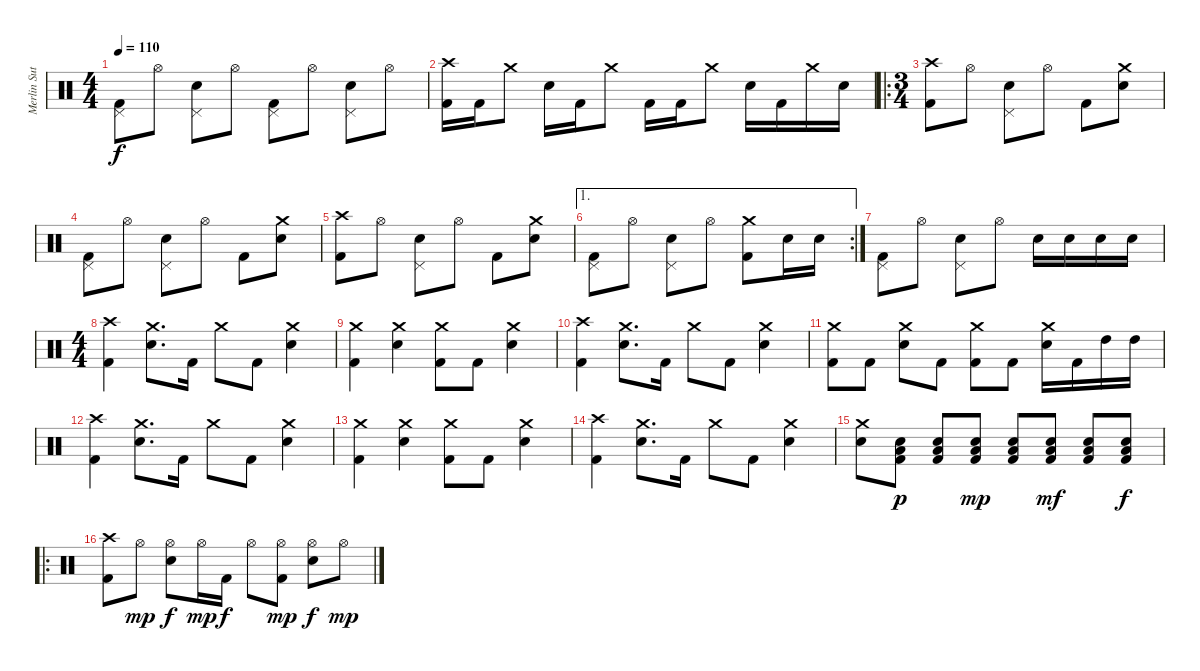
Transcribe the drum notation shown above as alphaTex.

\track ("Merlin Sutter" "Merlin Sut") {instrument percussion}
\staff {score}
\articulation defaults
\ts (4 4)
\tempo 110
\clef neutral
\ks c
("Pedal Hi-Hat (hit)" "Kick (hit) 2").8{dy f} "Hi-Hat (open)".8 ("Pedal Hi-Hat (hit)" "Snare (hit) 2").8 "Hi-Hat (open)".8 ("Pedal Hi-Hat (hit)" "Kick (hit) 2").8 "Hi-Hat (open)".8 ("Pedal Hi-Hat (hit)" "Snare (hit) 2").8 "Hi-Hat (open)".8 |
("Crash high (hit)" "Kick (hit) 2").16 "Kick (hit) 2".16 "Crash medium (hit)".8 "Snare (hit) 2".16 "Kick (hit) 2".16 "Crash medium (hit)".8 "Kick (hit) 2".16 "Kick (hit) 2".16 "Crash medium (hit)".8 "Snare (hit) 2".16 "Kick (hit) 2".16 "Crash medium (hit)".16 "Snare (hit) 2".16 |
\ro
\ts (3 4)
("Crash high (hit)" "Kick (hit) 2").8 "Hi-Hat (open)".8 ("Pedal Hi-Hat (hit)" "Snare (hit) 2").8 "Hi-Hat (open)".8 "Kick (hit) 2".8 ("Crash medium (hit)" "Snare (hit) 2").8 |
("Pedal Hi-Hat (hit)" "Kick (hit) 2").8 "Hi-Hat (open)".8 ("Pedal Hi-Hat (hit)" "Snare (hit) 2").8 "Hi-Hat (open)".8 "Kick (hit) 2".8 ("Crash medium (hit)" "Snare (hit) 2").8 |
("Crash high (hit)" "Kick (hit) 2").8 "Hi-Hat (open)".8 ("Pedal Hi-Hat (hit)" "Snare (hit) 2").8 "Hi-Hat (open)".8 "Kick (hit) 2".8 ("Crash medium (hit)" "Snare (hit) 2").8 |
\ae 1
\rc 2
("Pedal Hi-Hat (hit)" "Kick (hit) 2").8 "Hi-Hat (open)".8 ("Pedal Hi-Hat (hit)" "Snare (hit) 2").8 "Hi-Hat (open)".8 ("Crash medium (hit)" "Kick (hit) 2").8 "Snare (hit) 2".16 "Snare (hit) 2".16 |
("Pedal Hi-Hat (hit)" "Kick (hit) 2").8 "Hi-Hat (open)".8 ("Pedal Hi-Hat (hit)" "Snare (hit) 2").8 "Hi-Hat (open)".8 "Snare (hit) 2".16 "Snare (hit) 2".16 "Snare (hit) 2".16 "Snare (hit) 2".16 |
\ts (4 4)
("Crash high (hit)" "Kick (hit) 2").4 ("Crash medium (hit)" "Snare (hit) 2").8{d} "Kick (hit) 2".16 "Crash medium (hit)".8 "Kick (hit) 2".8 ("Crash medium (hit)" "Snare (hit) 2").4 |
("Crash medium (hit)" "Kick (hit) 2").4 ("Crash medium (hit)" "Snare (hit) 2").4 ("Crash medium (hit)" "Kick (hit) 2").8 "Kick (hit) 2".8 ("Crash medium (hit)" "Snare (hit) 2").4 |
("Crash high (hit)" "Kick (hit) 2").4 ("Crash medium (hit)" "Snare (hit) 2").8{d} "Kick (hit) 2".16 "Crash medium (hit)".8 "Kick (hit) 2".8 ("Crash medium (hit)" "Snare (hit) 2").4 |
("Crash medium (hit)" "Kick (hit) 2").8 "Kick (hit) 2".8 ("Crash medium (hit)" "Snare (hit) 2").8 "Kick (hit) 2".8 ("Crash medium (hit)" "Kick (hit) 2").8 "Kick (hit) 2".8 ("Crash medium (hit)" "Snare (hit) 2").16 "Kick (hit) 2".16 "High Tom (hit)".16 "High Tom (hit)".16 |
("Crash high (hit)" "Kick (hit) 2").4 ("Crash medium (hit)" "Snare (hit) 2").8{d} "Kick (hit) 2".16 "Crash medium (hit)".8 "Kick (hit) 2".8 ("Crash medium (hit)" "Snare (hit) 2").4 |
("Crash medium (hit)" "Kick (hit) 2").4 ("Crash medium (hit)" "Snare (hit) 2").4 ("Crash medium (hit)" "Kick (hit) 2").8 "Kick (hit) 2".8 ("Crash medium (hit)" "Snare (hit) 2").4 |
("Crash high (hit)" "Kick (hit) 2").4 ("Crash medium (hit)" "Snare (hit) 2").8{d} "Kick (hit) 2".16 "Crash medium (hit)".8 "Kick (hit) 2".8 ("Crash medium (hit)" "Snare (hit) 2").4 |
("Crash medium (hit)" "Snare (hit) 2").8 ("Low Tom (hit)" "Snare (hit) 2" "Kick (hit) 2").8{dy p} ("Low Tom (hit)" "Snare (hit) 2" "Kick (hit) 2").8 ("Low Tom (hit)" "Snare (hit) 2" "Kick (hit) 2").8{dy mp} ("Low Tom (hit)" "Snare (hit) 2" "Kick (hit) 2").8 ("Low Tom (hit)" "Snare (hit) 2" "Kick (hit) 2").8{dy mf} ("Low Tom (hit)" "Snare (hit) 2" "Kick (hit) 2").8 ("Low Tom (hit)" "Snare (hit) 2" "Kick (hit) 2").8{dy f} |
\ro
("Crash high (hit)" "Kick (hit) 2").8 "Hi-Hat (open)".8{dy mp} ("Hi-Hat (open)" "Snare (hit) 2").8{dy f} "Hi-Hat (open)".16{dy mp} "Kick (hit) 2".16{dy f} "Hi-Hat (open)".8 ("Hi-Hat (open)" "Kick (hit) 2").8{dy mp} ("Hi-Hat (open)" "Snare (hit) 2").8{dy f} "Hi-Hat (open)".8{dy mp}
